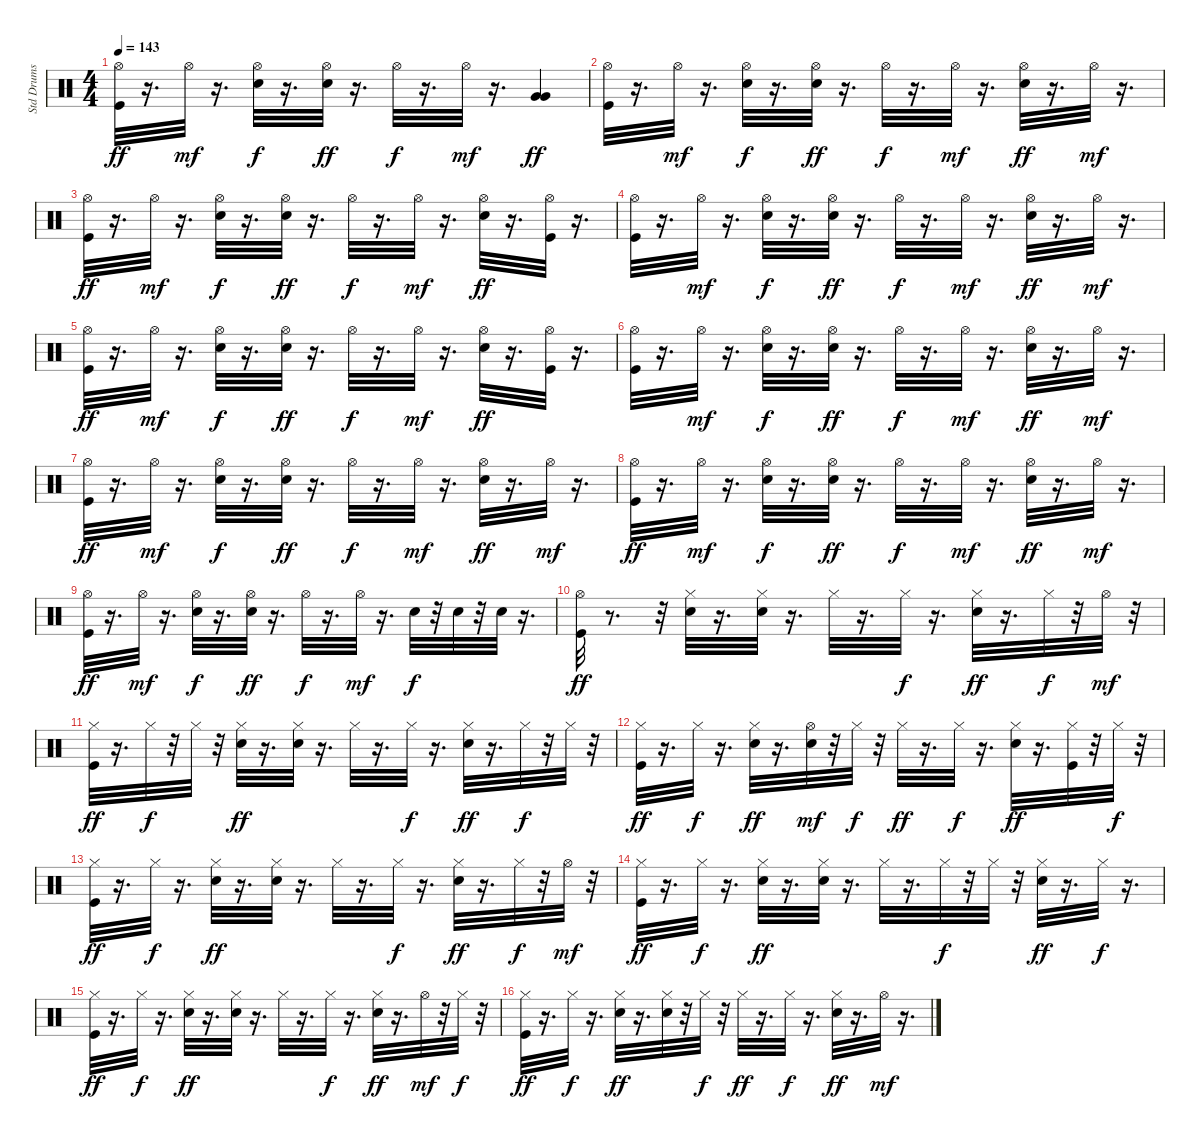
\track ("Std Drums" "Std Drums") {instrument percussion}
\staff {score}
\articulation defaults
\ts (4 4)
\tempo 143
\clef neutral
\ks c
("Hi-Hat (open)" "Kick (hit)").32{dy ff} r.16{d} "Hi-Hat (open)".32{dy mf} r.16{d} ("Hi-Hat (open)" "Snare (hit) 2").32{dy f} r.16{d} ("Hi-Hat (open)" "Snare (hit) 2").32{dy ff} r.16{d} "Hi-Hat (open)".32{dy f} r.16{d} "Hi-Hat (open)".32{dy mf} r.16{d} ("Very Low Tom (hit)" "Very Low Tom (hit)").4{dy ff} |
("Hi-Hat (open)" "Kick (hit)").32 r.16{d} "Hi-Hat (open)".32{dy mf} r.16{d} ("Hi-Hat (open)" "Snare (hit) 2").32{dy f} r.16{d} ("Hi-Hat (open)" "Snare (hit) 2").32{dy ff} r.16{d} "Hi-Hat (open)".32{dy f} r.16{d} "Hi-Hat (open)".32{dy mf} r.16{d} ("Hi-Hat (open)" "Snare (hit) 2").32{dy ff} r.16{d} "Hi-Hat (open)".32{dy mf} r.16{d} |
("Hi-Hat (open)" "Kick (hit)").32{dy ff} r.16{d} "Hi-Hat (open)".32{dy mf} r.16{d} ("Hi-Hat (open)" "Snare (hit) 2").32{dy f} r.16{d} ("Hi-Hat (open)" "Snare (hit) 2").32{dy ff} r.16{d} "Hi-Hat (open)".32{dy f} r.16{d} "Hi-Hat (open)".32{dy mf} r.16{d} ("Hi-Hat (open)" "Snare (hit) 2").32{dy ff} r.16{d} ("Hi-Hat (open)" "Kick (hit)").32 r.16{d} |
("Hi-Hat (open)" "Kick (hit)").32 r.16{d} "Hi-Hat (open)".32{dy mf} r.16{d} ("Hi-Hat (open)" "Snare (hit) 2").32{dy f} r.16{d} ("Hi-Hat (open)" "Snare (hit) 2").32{dy ff} r.16{d} "Hi-Hat (open)".32{dy f} r.16{d} "Hi-Hat (open)".32{dy mf} r.16{d} ("Hi-Hat (open)" "Snare (hit) 2").32{dy ff} r.16{d} "Hi-Hat (open)".32{dy mf} r.16{d} |
("Hi-Hat (open)" "Kick (hit)").32{dy ff} r.16{d} "Hi-Hat (open)".32{dy mf} r.16{d} ("Hi-Hat (open)" "Snare (hit) 2").32{dy f} r.16{d} ("Hi-Hat (open)" "Snare (hit) 2").32{dy ff} r.16{d} "Hi-Hat (open)".32{dy f} r.16{d} "Hi-Hat (open)".32{dy mf} r.16{d} ("Hi-Hat (open)" "Snare (hit) 2").32{dy ff} r.16{d} ("Hi-Hat (open)" "Kick (hit)").32 r.16{d} |
("Hi-Hat (open)" "Kick (hit)").32 r.16{d} "Hi-Hat (open)".32{dy mf} r.16{d} ("Hi-Hat (open)" "Snare (hit) 2").32{dy f} r.16{d} ("Hi-Hat (open)" "Snare (hit) 2").32{dy ff} r.16{d} "Hi-Hat (open)".32{dy f} r.16{d} "Hi-Hat (open)".32{dy mf} r.16{d} ("Hi-Hat (open)" "Snare (hit) 2").32{dy ff} r.16{d} "Hi-Hat (open)".32{dy mf} r.16{d} |
("Hi-Hat (open)" "Kick (hit)").32{dy ff} r.16{d} "Hi-Hat (open)".32{dy mf} r.16{d} ("Hi-Hat (open)" "Snare (hit) 2").32{dy f} r.16{d} ("Hi-Hat (open)" "Snare (hit) 2").32{dy ff} r.16{d} "Hi-Hat (open)".32{dy f} r.16{d} "Hi-Hat (open)".32{dy mf} r.16{d} ("Hi-Hat (open)" "Snare (hit) 2").32{dy ff} r.16{d} "Hi-Hat (open)".32{dy mf} r.16{d} |
("Hi-Hat (open)" "Kick (hit)").32{dy ff} r.16{d} "Hi-Hat (open)".32{dy mf} r.16{d} ("Hi-Hat (open)" "Snare (hit) 2").32{dy f} r.16{d} ("Hi-Hat (open)" "Snare (hit) 2").32{dy ff} r.16{d} "Hi-Hat (open)".32{dy f} r.16{d} "Hi-Hat (open)".32{dy mf} r.16{d} ("Hi-Hat (open)" "Snare (hit) 2").32{dy ff} r.16{d} "Hi-Hat (open)".32{dy mf} r.16{d} |
("Hi-Hat (open)" "Kick (hit)").32{dy ff} r.16{d} "Hi-Hat (open)".32{dy mf} r.16{d} ("Hi-Hat (open)" "Snare (hit) 2").32{dy f} r.16{d} ("Hi-Hat (open)" "Snare (hit) 2").32{dy ff} r.16{d} "Hi-Hat (open)".32{dy f} r.16{d} "Hi-Hat (open)".32{dy mf} r.16{d} "Snare (hit) 2".32{dy f} r.32 "Snare (hit) 2".32 r.32 "Snare (hit) 2".32 r.16{d} |
("Hi-Hat (open)" "Kick (hit)").32{dy ff} r.8{d} r.32 ("Hi-Hat (closed)" "Snare (hit) 2").32 r.16{d} ("Hi-Hat (closed)" "Snare (hit) 2").32 r.16{d} "Hi-Hat (closed)".32 r.16{d} "Hi-Hat (closed)".32{dy f} r.16{d} ("Hi-Hat (closed)" "Snare (hit) 2").32{dy ff} r.16{d} "Hi-Hat (closed)".32{dy f} r.32 "Hi-Hat (open)".32{dy mf} r.32 |
("Hi-Hat (closed)" "Kick (hit)").32{dy ff} r.16{d} "Hi-Hat (closed)".32{dy f} r.32 "Hi-Hat (closed)".32 r.32 ("Hi-Hat (closed)" "Snare (hit) 2").32{dy ff} r.16{d} ("Hi-Hat (closed)" "Snare (hit) 2").32 r.16{d} "Hi-Hat (closed)".32 r.16{d} "Hi-Hat (closed)".32{dy f} r.16{d} ("Hi-Hat (closed)" "Snare (hit) 2").32{dy ff} r.16{d} "Hi-Hat (closed)".32{dy f} r.32 "Hi-Hat (closed)".32 r.32 |
("Hi-Hat (closed)" "Kick (hit)").32{dy ff} r.16{d} "Hi-Hat (closed)".32{dy f} r.16{d} ("Hi-Hat (closed)" "Snare (hit) 2").32{dy ff} r.16{d} ("Hi-Hat (open)" "Snare (hit) 2").32{dy mf} r.32 "Hi-Hat (closed)".32{dy f} r.32 "Hi-Hat (closed)".32{dy ff} r.16{d} "Hi-Hat (closed)".32{dy f} r.16{d} ("Hi-Hat (closed)" "Snare (hit) 2").32{dy ff} r.16{d} ("Hi-Hat (closed)" "Kick (hit)").32 r.32 "Hi-Hat (closed)".32{dy f} r.32 |
("Hi-Hat (closed)" "Kick (hit)").32{dy ff} r.16{d} "Hi-Hat (closed)".32{dy f} r.16{d} ("Hi-Hat (closed)" "Snare (hit) 2").32{dy ff} r.16{d} ("Hi-Hat (closed)" "Snare (hit) 2").32 r.16{d} "Hi-Hat (closed)".32 r.16{d} "Hi-Hat (closed)".32{dy f} r.16{d} ("Hi-Hat (closed)" "Snare (hit) 2").32{dy ff} r.16{d} "Hi-Hat (closed)".32{dy f} r.32 "Hi-Hat (open)".32{dy mf} r.32 |
("Hi-Hat (closed)" "Kick (hit)").32{dy ff} r.16{d} "Hi-Hat (closed)".32{dy f} r.16{d} ("Hi-Hat (closed)" "Snare (hit) 2").32{dy ff} r.16{d} ("Hi-Hat (closed)" "Snare (hit) 2").32 r.16{d} "Hi-Hat (closed)".32 r.16{d} "Hi-Hat (closed)".32{dy f} r.32 "Hi-Hat (closed)".32 r.32 ("Hi-Hat (closed)" "Snare (hit) 2").32{dy ff} r.16{d} "Hi-Hat (closed)".32{dy f} r.16{d} |
("Hi-Hat (closed)" "Kick (hit)").32{dy ff} r.16{d} "Hi-Hat (closed)".32{dy f} r.16{d} ("Hi-Hat (closed)" "Snare (hit) 2").32{dy ff} r.16{d} ("Hi-Hat (closed)" "Snare (hit) 2").32 r.16{d} "Hi-Hat (closed)".32 r.16{d} "Hi-Hat (closed)".32{dy f} r.16{d} ("Hi-Hat (closed)" "Snare (hit) 2").32{dy ff} r.16{d} "Hi-Hat (open)".32{dy mf} r.32 "Hi-Hat (closed)".32{dy f} r.32 |
("Hi-Hat (closed)" "Kick (hit)").32{dy ff} r.16{d} "Hi-Hat (closed)".32{dy f} r.16{d} ("Hi-Hat (closed)" "Snare (hit) 2").32{dy ff} r.16{d} ("Hi-Hat (closed)" "Snare (hit) 2").32 r.32 "Hi-Hat (closed)".32{dy f} r.32 "Hi-Hat (closed)".32{dy ff} r.16{d} "Hi-Hat (closed)".32{dy f} r.16{d} ("Hi-Hat (closed)" "Snare (hit) 2").32{dy ff} r.16{d} "Hi-Hat (open)".32{dy mf} r.16{d}
